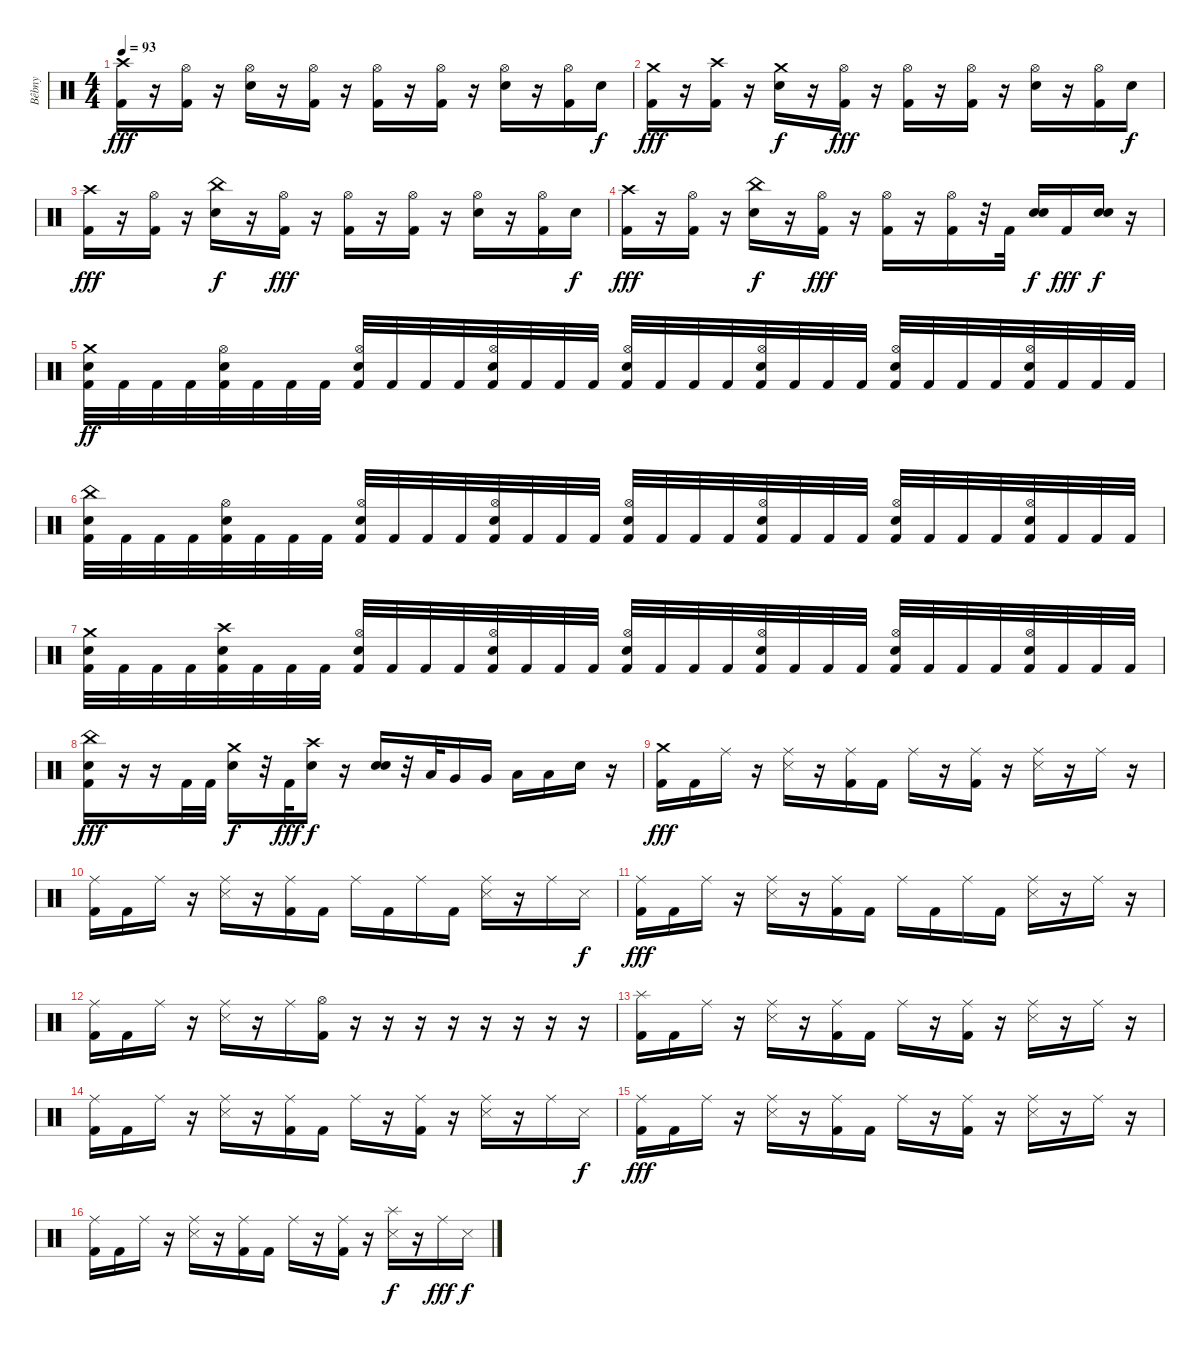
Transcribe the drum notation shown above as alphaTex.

\track ("Bêbny" "Bêbny") {instrument percussion}
\staff {score}
\articulation defaults
\ts (4 4)
\tempo 93
\clef neutral
\ks c
("Crash high (hit)" "Kick (hit) 2").16{dy fff} r.16 ("Hi-Hat (open)" "Kick (hit) 2").16 r.16 ("Hi-Hat (open)" "Electric Snare (hit)").16 r.16 ("Hi-Hat (open)" "Kick (hit) 2").16 r.16 ("Hi-Hat (open)" "Kick (hit) 2").16 r.16 ("Hi-Hat (open)" "Kick (hit) 2").16 r.16 ("Hi-Hat (open)" "Electric Snare (hit)").16 r.16 ("Hi-Hat (open)" "Kick (hit) 2").16 "Electric Snare (hit)".16{dy f} |
("Crash medium (hit)" "Kick (hit) 2").16{dy fff} r.16 ("Crash high (hit)" "Kick (hit) 2").16 r.16 ("Crash medium (hit)" "Electric Snare (hit)").16{dy f} r.16 ("Hi-Hat (open)" "Kick (hit) 2").16{dy fff} r.16 ("Hi-Hat (open)" "Kick (hit) 2").16 r.16 ("Hi-Hat (open)" "Kick (hit) 2").16 r.16 ("Hi-Hat (open)" "Electric Snare (hit)").16 r.16 ("Hi-Hat (open)" "Kick (hit) 2").16 "Electric Snare (hit)".16{dy f} |
("Crash high (hit)" "Kick (hit) 2").16{dy fff} r.16 ("Hi-Hat (open)" "Kick (hit) 2").16 r.16 ("China (hit)" "Electric Snare (hit)").16{dy f} r.16 ("Hi-Hat (open)" "Kick (hit) 2").16{dy fff} r.16 ("Hi-Hat (open)" "Kick (hit) 2").16 r.16 ("Hi-Hat (open)" "Kick (hit) 2").16 r.16 ("Hi-Hat (open)" "Electric Snare (hit)").16 r.16 ("Hi-Hat (open)" "Kick (hit) 2").16 "Electric Snare (hit)".16{dy f} |
("Crash high (hit)" "Kick (hit) 2").16{dy fff} r.16 ("Hi-Hat (open)" "Kick (hit) 2").16 r.16 ("China (hit)" "Electric Snare (hit)").16{dy f} r.16 ("Hi-Hat (open)" "Kick (hit) 2").16{dy fff} r.16 ("Hi-Hat (open)" "Kick (hit) 2").16 r.16 ("Hi-Hat (open)" "Kick (hit) 2").16 r.32 "Kick (hit) 2".32 ("Electric Snare (hit)" "Electric Snare (hit)").16{bd 240 dy f} "Kick (hit) 2".16{dy fff} ("Electric Snare (hit)" "Electric Snare (hit)").16{bd 60 dy f} r.16 |
("Crash medium (hit)" "Electric Snare (hit)" "Kick (hit) 2").32{dy ff} "Kick (hit) 2".32 "Kick (hit) 2".32 "Kick (hit) 2".32 ("Hi-Hat (open)" "Electric Snare (hit)" "Kick (hit) 2").32 "Kick (hit) 2".32 "Kick (hit) 2".32 "Kick (hit) 2".32 ("Hi-Hat (open)" "Electric Snare (hit)" "Kick (hit) 2").32 "Kick (hit) 2".32 "Kick (hit) 2".32 "Kick (hit) 2".32 ("Hi-Hat (open)" "Electric Snare (hit)" "Kick (hit) 2").32 "Kick (hit) 2".32 "Kick (hit) 2".32 "Kick (hit) 2".32 ("Hi-Hat (open)" "Electric Snare (hit)" "Kick (hit) 2").32 "Kick (hit) 2".32 "Kick (hit) 2".32 "Kick (hit) 2".32 ("Hi-Hat (open)" "Electric Snare (hit)" "Kick (hit) 2").32 "Kick (hit) 2".32 "Kick (hit) 2".32 "Kick (hit) 2".32 ("Hi-Hat (open)" "Electric Snare (hit)" "Kick (hit) 2").32 "Kick (hit) 2".32 "Kick (hit) 2".32 "Kick (hit) 2".32 ("Hi-Hat (open)" "Electric Snare (hit)" "Kick (hit) 2").32 "Kick (hit) 2".32 "Kick (hit) 2".32 "Kick (hit) 2".32 |
("China (hit)" "Electric Snare (hit)" "Kick (hit) 2").32 "Kick (hit) 2".32 "Kick (hit) 2".32 "Kick (hit) 2".32 ("Hi-Hat (open)" "Electric Snare (hit)" "Kick (hit) 2").32 "Kick (hit) 2".32 "Kick (hit) 2".32 "Kick (hit) 2".32 ("Hi-Hat (open)" "Electric Snare (hit)" "Kick (hit) 2").32 "Kick (hit) 2".32 "Kick (hit) 2".32 "Kick (hit) 2".32 ("Hi-Hat (open)" "Electric Snare (hit)" "Kick (hit) 2").32 "Kick (hit) 2".32 "Kick (hit) 2".32 "Kick (hit) 2".32 ("Hi-Hat (open)" "Electric Snare (hit)" "Kick (hit) 2").32 "Kick (hit) 2".32 "Kick (hit) 2".32 "Kick (hit) 2".32 ("Hi-Hat (open)" "Electric Snare (hit)" "Kick (hit) 2").32 "Kick (hit) 2".32 "Kick (hit) 2".32 "Kick (hit) 2".32 ("Hi-Hat (open)" "Electric Snare (hit)" "Kick (hit) 2").32 "Kick (hit) 2".32 "Kick (hit) 2".32 "Kick (hit) 2".32 ("Hi-Hat (open)" "Electric Snare (hit)" "Kick (hit) 2").32 "Kick (hit) 2".32 "Kick (hit) 2".32 "Kick (hit) 2".32 |
("Crash medium (hit)" "Electric Snare (hit)" "Kick (hit) 2").32 "Kick (hit) 2".32 "Kick (hit) 2".32 "Kick (hit) 2".32 ("Crash high (hit)" "Electric Snare (hit)" "Kick (hit) 2").32 "Kick (hit) 2".32 "Kick (hit) 2".32 "Kick (hit) 2".32 ("Hi-Hat (open)" "Electric Snare (hit)" "Kick (hit) 2").32 "Kick (hit) 2".32 "Kick (hit) 2".32 "Kick (hit) 2".32 ("Hi-Hat (open)" "Electric Snare (hit)" "Kick (hit) 2").32 "Kick (hit) 2".32 "Kick (hit) 2".32 "Kick (hit) 2".32 ("Hi-Hat (open)" "Electric Snare (hit)" "Kick (hit) 2").32 "Kick (hit) 2".32 "Kick (hit) 2".32 "Kick (hit) 2".32 ("Hi-Hat (open)" "Electric Snare (hit)" "Kick (hit) 2").32 "Kick (hit) 2".32 "Kick (hit) 2".32 "Kick (hit) 2".32 ("Hi-Hat (open)" "Electric Snare (hit)" "Kick (hit) 2").32 "Kick (hit) 2".32 "Kick (hit) 2".32 "Kick (hit) 2".32 ("Hi-Hat (open)" "Electric Snare (hit)" "Kick (hit) 2").32 "Kick (hit) 2".32 "Kick (hit) 2".32 "Kick (hit) 2".32 |
("China (hit)" "Electric Snare (hit)" "Kick (hit) 2").16{dy fff} r.16 r.16 "Kick (hit) 2".32 "Kick (hit) 2".32 ("Crash medium (hit)" "Electric Snare (hit)").16{dy f} r.32 "Kick (hit) 2".32{dy fff} ("Crash high (hit)" "Electric Snare (hit)").16{dy f} r.16 ("Electric Snare (hit)" "Electric Snare (hit)").16{bd 120} r.32 "Low Tom (hit)".32 "Very Low Tom (hit)".16 "Very Low Tom (hit)".16 "Low Floor Tom (hit)".16 "Low Floor Tom (hit)".16 "Electric Snare (hit)".16 r.16 |
("Crash medium (hit)" "Kick (hit) 2").16{dy fff} "Kick (hit) 2".16 "Ride (middle)".16 r.16 ("Ride (middle)" "Snare (side stick) 3").16 r.16 ("Ride (middle)" "Kick (hit) 2").16 "Kick (hit) 2".16 "Ride (middle)".16 r.16 ("Ride (middle)" "Kick (hit) 2").16 r.16 ("Ride (middle)" "Snare (side stick) 3").16 r.16 "Ride (middle)".16 r.16 |
("Ride (middle)" "Kick (hit) 2").16 "Kick (hit) 2".16 "Ride (middle)".16 r.16 ("Ride (middle)" "Snare (side stick) 3").16 r.16 ("Ride (middle)" "Kick (hit) 2").16 "Kick (hit) 2".16 "Ride (middle)".16 "Kick (hit) 2".16 "Ride (middle)".16 "Kick (hit) 2".16 ("Ride (middle)" "Snare (side stick) 3").16 r.16 "Ride (middle)".16 "Snare (side stick) 3".16{dy f} |
("Ride (middle)" "Kick (hit) 2").16{dy fff} "Kick (hit) 2".16 "Ride (middle)".16 r.16 ("Ride (middle)" "Snare (side stick) 3").16 r.16 ("Ride (middle)" "Kick (hit) 2").16 "Kick (hit) 2".16 "Ride (middle)".16 "Kick (hit) 2".16 "Ride (middle)".16 "Kick (hit) 2".16 ("Ride (middle)" "Snare (side stick) 3").16 r.16 "Ride (middle)".16 r.16 |
("Ride (middle)" "Kick (hit) 2").16 "Kick (hit) 2".16 "Ride (middle)".16 r.16 ("Ride (middle)" "Snare (side stick) 3").16 r.16 "Ride (middle)".16 ("Hi-Hat (open)" "Kick (hit) 2").16 r.16 r.16 r.16 r.16 r.16 r.16 r.16 r.16 |
("Splash (hit)" "Kick (hit) 2").16 "Kick (hit) 2".16 "Ride (middle)".16 r.16 ("Ride (middle)" "Snare (side stick) 3").16 r.16 ("Ride (middle)" "Kick (hit) 2").16 "Kick (hit) 2".16 "Ride (middle)".16 r.16 ("Ride (middle)" "Kick (hit) 2").16 r.16 ("Ride (middle)" "Snare (side stick) 3").16 r.16 "Ride (middle)".16 r.16 |
("Ride (middle)" "Kick (hit) 2").16 "Kick (hit) 2".16 "Ride (middle)".16 r.16 ("Ride (middle)" "Snare (side stick) 3").16 r.16 ("Ride (middle)" "Kick (hit) 2").16 "Kick (hit) 2".16 "Ride (middle)".16 r.16 ("Ride (middle)" "Kick (hit) 2").16 r.16 ("Ride (middle)" "Snare (side stick) 3").16 r.16 "Ride (middle)".16 "Snare (side stick) 3".16{dy f} |
("Ride (middle)" "Kick (hit) 2").16{dy fff} "Kick (hit) 2".16 "Ride (middle)".16 r.16 ("Ride (middle)" "Snare (side stick) 3").16 r.16 ("Ride (middle)" "Kick (hit) 2").16 "Kick (hit) 2".16 "Ride (middle)".16 r.16 ("Ride (middle)" "Kick (hit) 2").16 r.16 ("Ride (middle)" "Snare (side stick) 3").16 r.16 "Ride (middle)".16 r.16 |
("Ride (middle)" "Kick (hit) 2").16 "Kick (hit) 2".16 "Ride (middle)".16 r.16 ("Ride (middle)" "Snare (side stick) 3").16 r.16 ("Ride (middle)" "Kick (hit) 2").16 "Kick (hit) 2".16 "Ride (middle)".16 r.16 ("Ride (middle)" "Kick (hit) 2").16 r.16 ("Splash (hit)" "Snare (side stick) 3").16{dy f} r.16 "Ride (middle)".16{dy fff} "Snare (side stick) 3".16{dy f}
